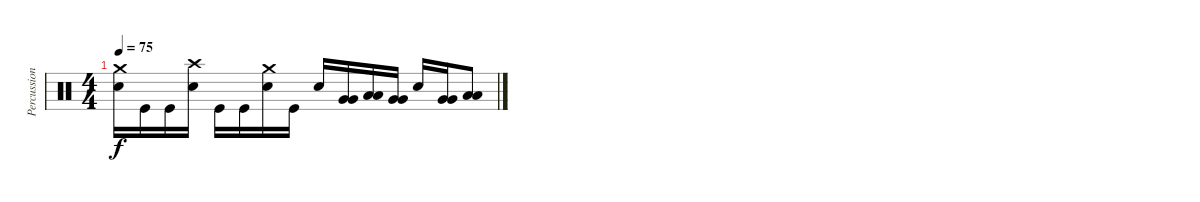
\track ("Percussion" "Percussion") {instrument percussion}
\staff {score}
\articulation defaults
\ts (4 4)
\tempo 75
\clef neutral
\ks c
("Snare (hit) 2" "Crash medium (hit)").16{dy f} "Kick (hit)".16 "Kick (hit)".16 ("Snare (hit) 2" "Crash high (hit)").16 "Kick (hit)".16 "Kick (hit)".16 ("Snare (hit) 2" "Crash medium (hit)").16 "Kick (hit)".16 "Snare (hit) 2".16 ("Very Low Tom (hit)" "Very Low Tom (hit)").16 ("Low Floor Tom (hit)" "Low Floor Tom (hit)").16 ("Very Low Tom (hit)" "Very Low Tom (hit)").16 "Snare (hit) 2".16 ("Very Low Tom (hit)" "Very Low Tom (hit)").16 ("Low Floor Tom (hit)" "Low Floor Tom (hit)").8
